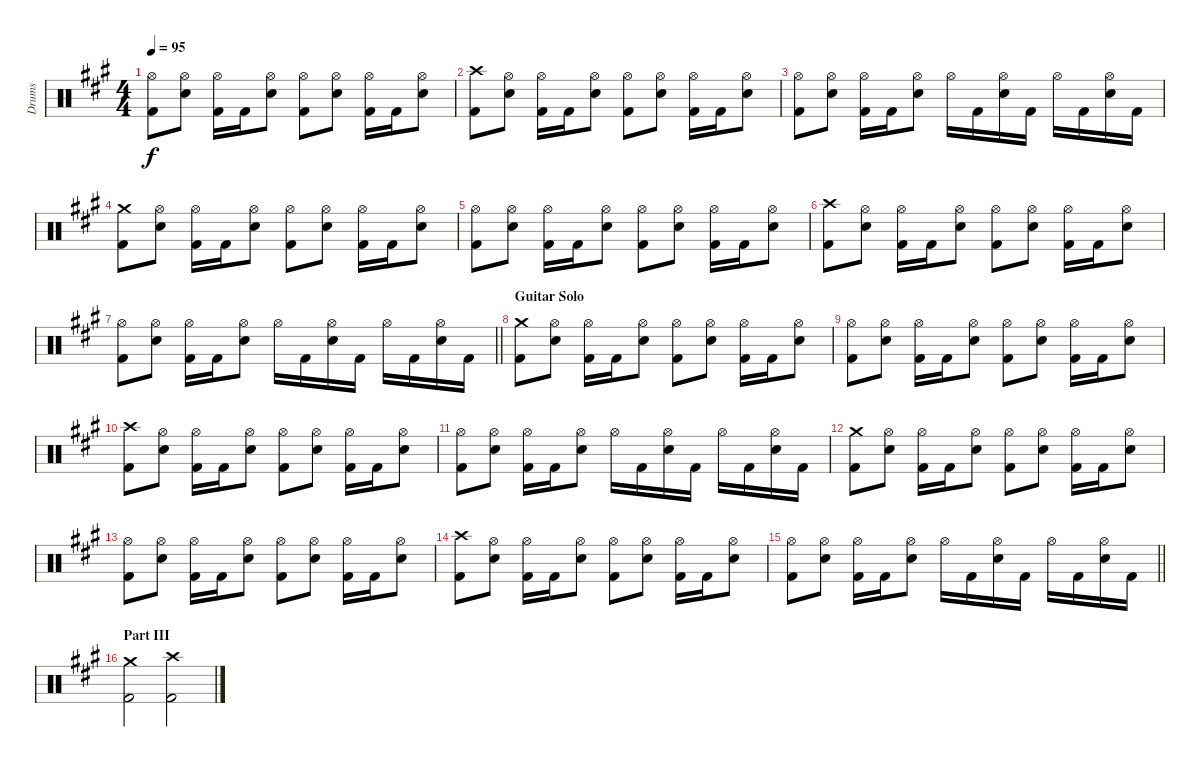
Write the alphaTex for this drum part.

\track ("Drums" "Drums") {instrument percussion}
\staff {score}
\articulation defaults
\ts (4 4)
\tempo 95
\clef neutral
\ks a
("Hi-Hat (open)" "Kick (hit) 2").8{dy f} ("Hi-Hat (open)" "Electric Snare (hit)").8 ("Hi-Hat (open)" "Kick (hit) 2").16 "Kick (hit) 2".16 ("Hi-Hat (open)" "Electric Snare (hit)").8 ("Hi-Hat (open)" "Kick (hit) 2").8 ("Hi-Hat (open)" "Electric Snare (hit)").8 ("Hi-Hat (open)" "Kick (hit) 2").16 "Kick (hit) 2".16 ("Hi-Hat (open)" "Electric Snare (hit)").8 |
("Crash high (hit)" "Kick (hit) 2").8 ("Hi-Hat (open)" "Electric Snare (hit)").8 ("Hi-Hat (open)" "Kick (hit) 2").16 "Kick (hit) 2".16 ("Hi-Hat (open)" "Electric Snare (hit)").8 ("Hi-Hat (open)" "Kick (hit) 2").8 ("Hi-Hat (open)" "Electric Snare (hit)").8 ("Hi-Hat (open)" "Kick (hit) 2").16 "Kick (hit) 2".16 ("Hi-Hat (open)" "Electric Snare (hit)").8 |
("Hi-Hat (open)" "Kick (hit) 2").8 ("Hi-Hat (open)" "Electric Snare (hit)").8 ("Hi-Hat (open)" "Kick (hit) 2").16 "Kick (hit) 2".16 ("Hi-Hat (open)" "Electric Snare (hit)").8 "Hi-Hat (open)".16 "Kick (hit) 2".16 ("Hi-Hat (open)" "Electric Snare (hit)").16 "Kick (hit) 2".16 "Hi-Hat (open)".16 "Kick (hit) 2".16 ("Hi-Hat (open)" "Electric Snare (hit)").16 "Kick (hit) 2".16 |
("Crash medium (hit)" "Kick (hit) 2").8 ("Hi-Hat (open)" "Electric Snare (hit)").8 ("Hi-Hat (open)" "Kick (hit) 2").16 "Kick (hit) 2".16 ("Hi-Hat (open)" "Electric Snare (hit)").8 ("Hi-Hat (open)" "Kick (hit) 2").8 ("Hi-Hat (open)" "Electric Snare (hit)").8 ("Hi-Hat (open)" "Kick (hit) 2").16 "Kick (hit) 2".16 ("Hi-Hat (open)" "Electric Snare (hit)").8 |
("Hi-Hat (open)" "Kick (hit) 2").8 ("Hi-Hat (open)" "Electric Snare (hit)").8 ("Hi-Hat (open)" "Kick (hit) 2").16 "Kick (hit) 2".16 ("Hi-Hat (open)" "Electric Snare (hit)").8 ("Hi-Hat (open)" "Kick (hit) 2").8 ("Hi-Hat (open)" "Electric Snare (hit)").8 ("Hi-Hat (open)" "Kick (hit) 2").16 "Kick (hit) 2".16 ("Hi-Hat (open)" "Electric Snare (hit)").8 |
("Crash high (hit)" "Kick (hit) 2").8 ("Hi-Hat (open)" "Electric Snare (hit)").8 ("Hi-Hat (open)" "Kick (hit) 2").16 "Kick (hit) 2".16 ("Hi-Hat (open)" "Electric Snare (hit)").8 ("Hi-Hat (open)" "Kick (hit) 2").8 ("Hi-Hat (open)" "Electric Snare (hit)").8 ("Hi-Hat (open)" "Kick (hit) 2").16 "Kick (hit) 2".16 ("Hi-Hat (open)" "Electric Snare (hit)").8 |
\barLineRight lightlight
("Hi-Hat (open)" "Kick (hit) 2").8 ("Hi-Hat (open)" "Electric Snare (hit)").8 ("Hi-Hat (open)" "Kick (hit) 2").16 "Kick (hit) 2".16 ("Hi-Hat (open)" "Electric Snare (hit)").8 "Hi-Hat (open)".16 "Kick (hit) 2".16 ("Hi-Hat (open)" "Electric Snare (hit)").16 "Kick (hit) 2".16 "Hi-Hat (open)".16 "Kick (hit) 2".16 ("Hi-Hat (open)" "Electric Snare (hit)").16 "Kick (hit) 2".16 |
\section ("" "Guitar Solo")
("Crash medium (hit)" "Kick (hit) 2").8 ("Hi-Hat (open)" "Electric Snare (hit)").8 ("Hi-Hat (open)" "Kick (hit) 2").16 "Kick (hit) 2".16 ("Hi-Hat (open)" "Electric Snare (hit)").8 ("Hi-Hat (open)" "Kick (hit) 2").8 ("Hi-Hat (open)" "Electric Snare (hit)").8 ("Hi-Hat (open)" "Kick (hit) 2").16 "Kick (hit) 2".16 ("Hi-Hat (open)" "Electric Snare (hit)").8 |
("Hi-Hat (open)" "Kick (hit) 2").8 ("Hi-Hat (open)" "Electric Snare (hit)").8 ("Hi-Hat (open)" "Kick (hit) 2").16 "Kick (hit) 2".16 ("Hi-Hat (open)" "Electric Snare (hit)").8 ("Hi-Hat (open)" "Kick (hit) 2").8 ("Hi-Hat (open)" "Electric Snare (hit)").8 ("Hi-Hat (open)" "Kick (hit) 2").16 "Kick (hit) 2".16 ("Hi-Hat (open)" "Electric Snare (hit)").8 |
("Crash high (hit)" "Kick (hit) 2").8 ("Hi-Hat (open)" "Electric Snare (hit)").8 ("Hi-Hat (open)" "Kick (hit) 2").16 "Kick (hit) 2".16 ("Hi-Hat (open)" "Electric Snare (hit)").8 ("Hi-Hat (open)" "Kick (hit) 2").8 ("Hi-Hat (open)" "Electric Snare (hit)").8 ("Hi-Hat (open)" "Kick (hit) 2").16 "Kick (hit) 2".16 ("Hi-Hat (open)" "Electric Snare (hit)").8 |
("Hi-Hat (open)" "Kick (hit) 2").8 ("Hi-Hat (open)" "Electric Snare (hit)").8 ("Hi-Hat (open)" "Kick (hit) 2").16 "Kick (hit) 2".16 ("Hi-Hat (open)" "Electric Snare (hit)").8 "Hi-Hat (open)".16 "Kick (hit) 2".16 ("Hi-Hat (open)" "Electric Snare (hit)").16 "Kick (hit) 2".16 "Hi-Hat (open)".16 "Kick (hit) 2".16 ("Hi-Hat (open)" "Electric Snare (hit)").16 "Kick (hit) 2".16 |
("Crash medium (hit)" "Kick (hit) 2").8 ("Hi-Hat (open)" "Electric Snare (hit)").8 ("Hi-Hat (open)" "Kick (hit) 2").16 "Kick (hit) 2".16 ("Hi-Hat (open)" "Electric Snare (hit)").8 ("Hi-Hat (open)" "Kick (hit) 2").8 ("Hi-Hat (open)" "Electric Snare (hit)").8 ("Hi-Hat (open)" "Kick (hit) 2").16 "Kick (hit) 2".16 ("Hi-Hat (open)" "Electric Snare (hit)").8 |
("Hi-Hat (open)" "Kick (hit) 2").8 ("Hi-Hat (open)" "Electric Snare (hit)").8 ("Hi-Hat (open)" "Kick (hit) 2").16 "Kick (hit) 2".16 ("Hi-Hat (open)" "Electric Snare (hit)").8 ("Hi-Hat (open)" "Kick (hit) 2").8 ("Hi-Hat (open)" "Electric Snare (hit)").8 ("Hi-Hat (open)" "Kick (hit) 2").16 "Kick (hit) 2".16 ("Hi-Hat (open)" "Electric Snare (hit)").8 |
("Crash high (hit)" "Kick (hit) 2").8 ("Hi-Hat (open)" "Electric Snare (hit)").8 ("Hi-Hat (open)" "Kick (hit) 2").16 "Kick (hit) 2".16 ("Hi-Hat (open)" "Electric Snare (hit)").8 ("Hi-Hat (open)" "Kick (hit) 2").8 ("Hi-Hat (open)" "Electric Snare (hit)").8 ("Hi-Hat (open)" "Kick (hit) 2").16 "Kick (hit) 2".16 ("Hi-Hat (open)" "Electric Snare (hit)").8 |
\barLineRight lightlight
("Hi-Hat (open)" "Kick (hit) 2").8 ("Hi-Hat (open)" "Electric Snare (hit)").8 ("Hi-Hat (open)" "Kick (hit) 2").16 "Kick (hit) 2".16 ("Hi-Hat (open)" "Electric Snare (hit)").8 "Hi-Hat (open)".16 "Kick (hit) 2".16 ("Hi-Hat (open)" "Electric Snare (hit)").16 "Kick (hit) 2".16 "Hi-Hat (open)".16 "Kick (hit) 2".16 ("Hi-Hat (open)" "Electric Snare (hit)").16 "Kick (hit) 2".16 |
\section ("" "Part III")
("Crash medium (hit)" "Kick (hit) 2").2 ("Crash high (hit)" "Kick (hit) 2").2
